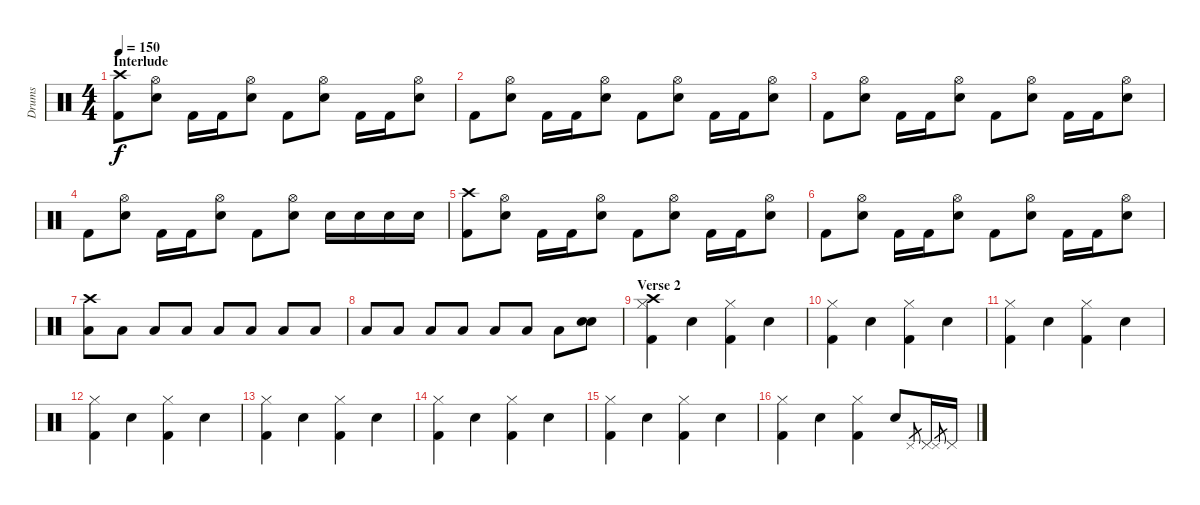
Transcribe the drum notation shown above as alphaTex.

\track ("Drums" "Drums") {instrument percussion}
\staff {score}
\articulation defaults
\ts (4 4)
\section ("" "Interlude")
\tempo 150
\clef neutral
\ks c
("Kick (hit) 2" "Crash high (hit)").8{dy f} ("Electric Snare (hit)" "Hi-Hat (open)").8 "Kick (hit) 2".16 "Kick (hit) 2".16 ("Electric Snare (hit)" "Hi-Hat (open)").8 "Kick (hit) 2".8 ("Electric Snare (hit)" "Hi-Hat (open)").8 "Kick (hit) 2".16 "Kick (hit) 2".16 ("Electric Snare (hit)" "Hi-Hat (open)").8 |
"Kick (hit) 2".8 ("Electric Snare (hit)" "Hi-Hat (open)").8 "Kick (hit) 2".16 "Kick (hit) 2".16 ("Electric Snare (hit)" "Hi-Hat (open)").8 "Kick (hit) 2".8 ("Electric Snare (hit)" "Hi-Hat (open)").8 "Kick (hit) 2".16 "Kick (hit) 2".16 ("Electric Snare (hit)" "Hi-Hat (open)").8 |
"Kick (hit) 2".8 ("Electric Snare (hit)" "Hi-Hat (open)").8 "Kick (hit) 2".16 "Kick (hit) 2".16 ("Electric Snare (hit)" "Hi-Hat (open)").8 "Kick (hit) 2".8 ("Electric Snare (hit)" "Hi-Hat (open)").8 "Kick (hit) 2".16 "Kick (hit) 2".16 ("Electric Snare (hit)" "Hi-Hat (open)").8 |
"Kick (hit) 2".8 ("Electric Snare (hit)" "Hi-Hat (open)").8 "Kick (hit) 2".16 "Kick (hit) 2".16 ("Electric Snare (hit)" "Hi-Hat (open)").8 "Kick (hit) 2".8 ("Electric Snare (hit)" "Hi-Hat (open)").8 "Electric Snare (hit)".16 "Electric Snare (hit)".16 "Electric Snare (hit)".16 "Electric Snare (hit)".16 |
("Kick (hit) 2" "Crash high (hit)").8 ("Electric Snare (hit)" "Hi-Hat (open)").8 "Kick (hit) 2".16 "Kick (hit) 2".16 ("Electric Snare (hit)" "Hi-Hat (open)").8 "Kick (hit) 2".8 ("Electric Snare (hit)" "Hi-Hat (open)").8 "Kick (hit) 2".16 "Kick (hit) 2".16 ("Electric Snare (hit)" "Hi-Hat (open)").8 |
"Kick (hit) 2".8 ("Electric Snare (hit)" "Hi-Hat (open)").8 "Kick (hit) 2".16 "Kick (hit) 2".16 ("Electric Snare (hit)" "Hi-Hat (open)").8 "Kick (hit) 2".8 ("Electric Snare (hit)" "Hi-Hat (open)").8 "Kick (hit) 2".16 "Kick (hit) 2".16 ("Electric Snare (hit)" "Hi-Hat (open)").8 |
("Low Floor Tom (hit)" "Crash high (hit)").8 "Low Floor Tom (hit)".8 "Low Floor Tom (hit)".8 "Low Floor Tom (hit)".8 "Low Floor Tom (hit)".8 "Low Floor Tom (hit)".8 "Low Floor Tom (hit)".8 "Low Floor Tom (hit)".8 |
"Low Floor Tom (hit)".8 "Low Floor Tom (hit)".8 "Low Floor Tom (hit)".8 "Low Floor Tom (hit)".8 "Low Floor Tom (hit)".8 "Low Floor Tom (hit)".8 "Low Floor Tom (hit)".8 ("Electric Snare (hit)" "Electric Snare (hit)").8 |
\section ("" "Verse 2")
("Kick (hit) 2" "Crash high (hit)" "Hi-Hat (closed)").4 "Electric Snare (hit)".4 ("Kick (hit) 2" "Hi-Hat (closed)").4 "Electric Snare (hit)".4 |
("Kick (hit) 2" "Hi-Hat (closed)").4 "Electric Snare (hit)".4 ("Kick (hit) 2" "Hi-Hat (closed)").4 "Electric Snare (hit)".4 |
("Kick (hit) 2" "Hi-Hat (closed)").4 "Electric Snare (hit)".4 ("Kick (hit) 2" "Hi-Hat (closed)").4 "Electric Snare (hit)".4 |
("Kick (hit) 2" "Hi-Hat (closed)").4 "Electric Snare (hit)".4 ("Kick (hit) 2" "Hi-Hat (closed)").4 "Electric Snare (hit)".4 |
("Kick (hit) 2" "Hi-Hat (closed)").4 "Electric Snare (hit)".4 ("Kick (hit) 2" "Hi-Hat (closed)").4 "Electric Snare (hit)".4 |
("Kick (hit) 2" "Hi-Hat (closed)").4 "Electric Snare (hit)".4 ("Kick (hit) 2" "Hi-Hat (closed)").4 "Electric Snare (hit)".4 |
("Kick (hit) 2" "Hi-Hat (closed)").4 "Electric Snare (hit)".4 ("Kick (hit) 2" "Hi-Hat (closed)").4 "Electric Snare (hit)".4 |
("Kick (hit) 2" "Hi-Hat (closed)").4 "Electric Snare (hit)".4 ("Kick (hit) 2" "Hi-Hat (closed)").4 "Electric Snare (hit)".8 "Pedal Hi-Hat (hit)".8{gr} "Pedal Hi-Hat (hit)".16 "Pedal Hi-Hat (hit)".8{gr} "Pedal Hi-Hat (hit)".16
